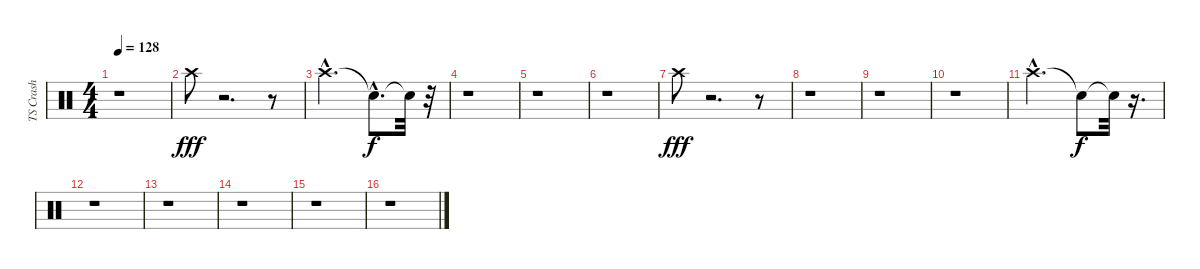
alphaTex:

\track ("TS Crash" "TS Crash") {instrument percussion}
\staff {score}
\articulation defaults
\ts (4 4)
\tempo 128
\clef neutral
\ks c
r.1{dy fff} |
"Crash high (hit)".8 r.2{d} r.8 |
"Crash high (hit)"{hac}.2{d} "Snare (hit)"{hac t}.8{d dy f} "Snare (hit)"{t}.32 r.32 |
r.1 |
r.1 |
r.1 |
"Crash high (hit)".8{dy fff} r.2{d} r.8 |
r.1 |
r.1 |
r.1 |
"Crash high (hit)"{hac}.2{d} "Snare (hit)"{t}.8{dy f} "Snare (hit)"{t}.32 r.16{d} |
r.1 |
r.1 |
r.1 |
r.1 |
r.1
